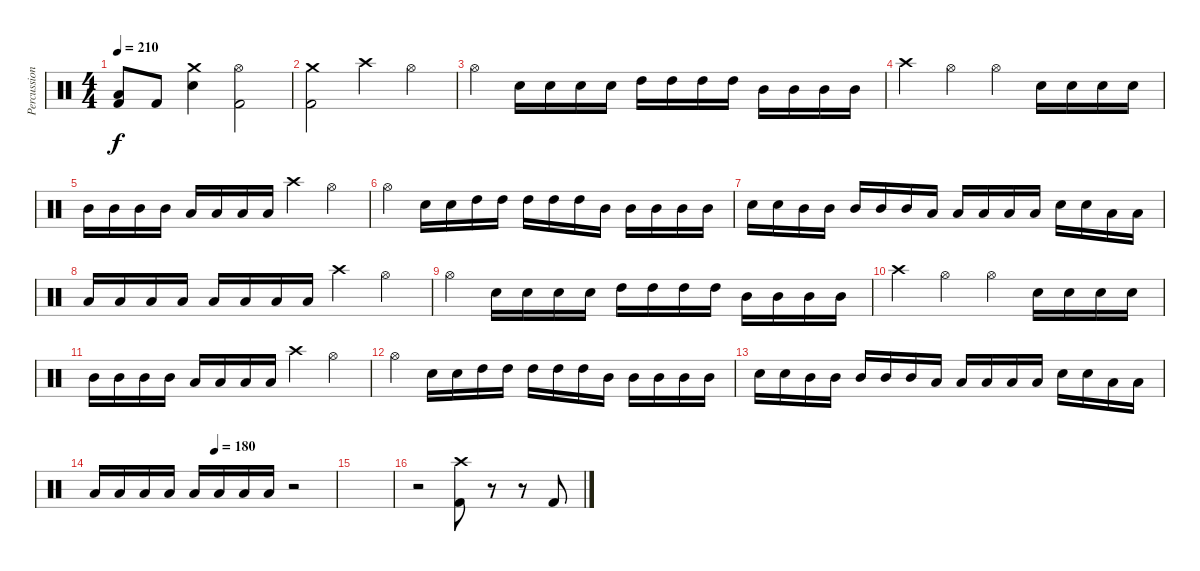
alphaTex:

\track ("Percussion" "Percussion") {instrument percussion}
\staff {score}
\articulation defaults
\ts (4 4)
\tempo 210
\clef neutral
\ks c
("Low Floor Tom (hit)" "Kick (hit) 2").8{dy f} "Kick (hit) 2".8 ("Crash medium (hit)" "Snare (hit) 2").4 ("Hi-Hat (open)" "Kick (hit) 2").2 |
("Crash medium (hit)" "Kick (hit) 2").2 "Crash high (hit)".4 "Hi-Hat (open)".4 |
"Hi-Hat (open)".4 "Snare (hit) 2".16 "Snare (hit) 2".16 "Snare (hit) 2".16 "Snare (hit) 2".16 "High Tom (hit)".16 "High Tom (hit)".16 "High Tom (hit)".16 "High Tom (hit)".16 "Mid Tom (hit)".16 "Mid Tom (hit)".16 "Mid Tom (hit)".16 "Mid Tom (hit)".16 |
"Crash high (hit)".4 "Hi-Hat (open)".4 "Hi-Hat (open)".4 "Snare (hit) 2".16 "Snare (hit) 2".16 "Snare (hit) 2".16 "Snare (hit) 2".16 |
"Mid Tom (hit)".16 "Mid Tom (hit)".16 "Mid Tom (hit)".16 "Mid Tom (hit)".16 "Low Tom (hit)".16 "Low Tom (hit)".16 "Low Tom (hit)".16 "Low Tom (hit)".16 "Crash high (hit)".4 "Hi-Hat (open)".4 |
"Hi-Hat (open)".4 "Snare (hit) 2".16 "Snare (hit) 2".16 "High Tom (hit)".16 "High Tom (hit)".16 "High Tom (hit)".16 "High Tom (hit)".16 "High Tom (hit)".16 "Mid Tom (hit)".16 "Mid Tom (hit)".16 "Mid Tom (hit)".16 "Mid Tom (hit)".16 "Mid Tom (hit)".16 |
"Snare (hit) 2".16 "Snare (hit) 2".16 "Mid Tom (hit)".16 "Mid Tom (hit)".16 "Mid Tom (hit)".16 "Mid Tom (hit)".16 "Mid Tom (hit)".16 "Low Tom (hit)".16 "Low Tom (hit)".16 "Low Tom (hit)".16 "Low Tom (hit)".16 "Low Tom (hit)".16 "Snare (hit) 2".16 "Snare (hit) 2".16 "Low Tom (hit)".16 "Low Tom (hit)".16 |
"Low Tom (hit)".16 "Low Tom (hit)".16 "Low Tom (hit)".16 "Low Floor Tom (hit)".16 "Low Floor Tom (hit)".16 "Low Floor Tom (hit)".16 "Low Floor Tom (hit)".16 "Low Floor Tom (hit)".16 "Crash high (hit)".4 "Hi-Hat (open)".4 |
"Hi-Hat (open)".4 "Snare (hit) 2".16 "Snare (hit) 2".16 "Snare (hit) 2".16 "Snare (hit) 2".16 "High Tom (hit)".16 "High Tom (hit)".16 "High Tom (hit)".16 "High Tom (hit)".16 "Mid Tom (hit)".16 "Mid Tom (hit)".16 "Mid Tom (hit)".16 "Mid Tom (hit)".16 |
"Crash high (hit)".4 "Hi-Hat (open)".4 "Hi-Hat (open)".4 "Snare (hit) 2".16 "Snare (hit) 2".16 "Snare (hit) 2".16 "Snare (hit) 2".16 |
"Mid Tom (hit)".16 "Mid Tom (hit)".16 "Mid Tom (hit)".16 "Mid Tom (hit)".16 "Low Tom (hit)".16 "Low Tom (hit)".16 "Low Tom (hit)".16 "Low Tom (hit)".16 "Crash high (hit)".4 "Hi-Hat (open)".4 |
"Hi-Hat (open)".4 "Snare (hit) 2".16 "Snare (hit) 2".16 "High Tom (hit)".16 "High Tom (hit)".16 "High Tom (hit)".16 "High Tom (hit)".16 "High Tom (hit)".16 "Mid Tom (hit)".16 "Mid Tom (hit)".16 "Mid Tom (hit)".16 "Mid Tom (hit)".16 "Mid Tom (hit)".16 |
"Snare (hit) 2".16 "Snare (hit) 2".16 "Mid Tom (hit)".16 "Mid Tom (hit)".16 "Mid Tom (hit)".16 "Mid Tom (hit)".16 "Mid Tom (hit)".16 "Low Tom (hit)".16 "Low Tom (hit)".16 "Low Tom (hit)".16 "Low Tom (hit)".16 "Low Tom (hit)".16 "Snare (hit) 2".16 "Snare (hit) 2".16 "Low Tom (hit)".16 "Low Tom (hit)".16 |
\tempo (180 0.5)
"Low Tom (hit)".16 "Low Tom (hit)".16 "Low Tom (hit)".16 "Low Floor Tom (hit)".16 "Low Floor Tom (hit)".16 "Low Floor Tom (hit)".16 "Low Floor Tom (hit)".16 "Low Floor Tom (hit)".16 r.2 |
|
r.2 ("Crash high (hit)" "Kick (hit) 2").8 r.8 r.8 "Kick (hit) 2".8
